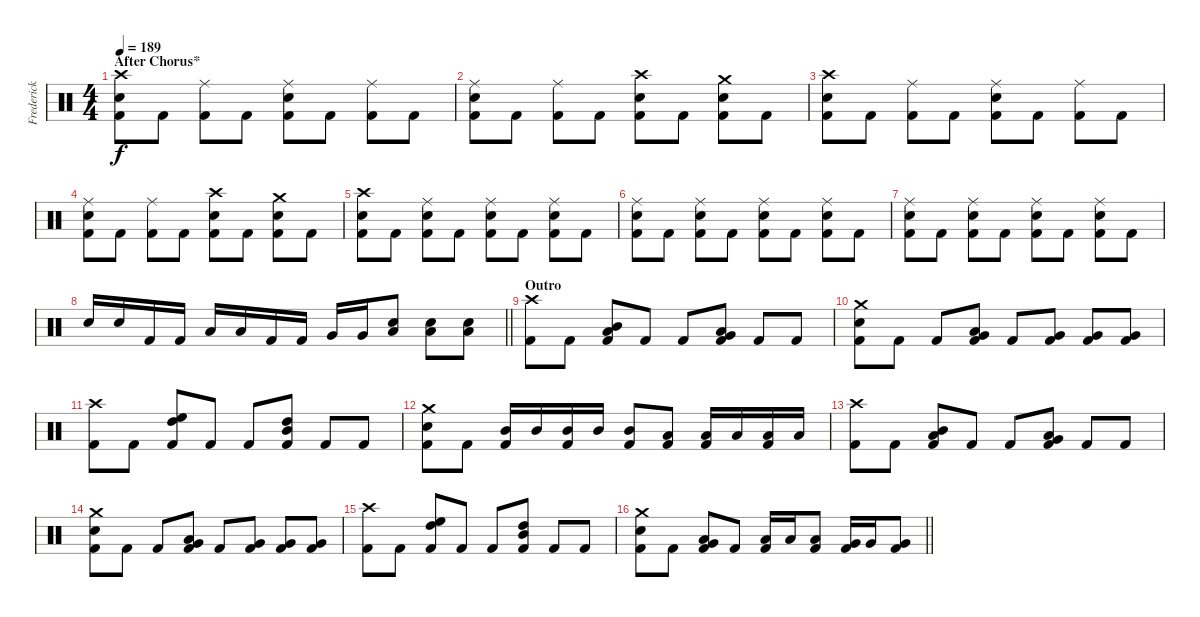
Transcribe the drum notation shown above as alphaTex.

\track ("Frederick Ehmke" "Frederick ") {instrument percussion}
\staff {score}
\articulation defaults
\ts (4 4)
\section ("" "After Chorus*")
\tempo 189
\clef neutral
\ks c
("Electric Snare (hit)" "Kick (hit) 2" "Crash high (hit)").8{dy f} "Kick (hit) 2".8 ("Kick (hit) 2" "Ride (middle)").8 "Kick (hit) 2".8 ("Electric Snare (hit)" "Kick (hit) 2" "Ride (middle)").8 "Kick (hit) 2".8 ("Kick (hit) 2" "Ride (middle)").8 "Kick (hit) 2".8 |
("Electric Snare (hit)" "Kick (hit) 2" "Ride (middle)").8 "Kick (hit) 2".8 ("Kick (hit) 2" "Ride (middle)").8 "Kick (hit) 2".8 ("Electric Snare (hit)" "Kick (hit) 2" "Crash high (hit)").8 "Kick (hit) 2".8 ("Electric Snare (hit)" "Kick (hit) 2" "Crash medium (hit)").8 "Kick (hit) 2".8 |
("Electric Snare (hit)" "Kick (hit) 2" "Crash high (hit)").8 "Kick (hit) 2".8 ("Kick (hit) 2" "Ride (middle)").8 "Kick (hit) 2".8 ("Electric Snare (hit)" "Kick (hit) 2" "Ride (middle)").8 "Kick (hit) 2".8 ("Kick (hit) 2" "Ride (middle)").8 "Kick (hit) 2".8 |
("Electric Snare (hit)" "Kick (hit) 2" "Ride (middle)").8 "Kick (hit) 2".8 ("Kick (hit) 2" "Ride (middle)").8 "Kick (hit) 2".8 ("Electric Snare (hit)" "Kick (hit) 2" "Crash high (hit)").8 "Kick (hit) 2".8 ("Electric Snare (hit)" "Kick (hit) 2" "Crash medium (hit)").8 "Kick (hit) 2".8 |
("Electric Snare (hit)" "Kick (hit) 2" "Crash high (hit)").8 "Kick (hit) 2".8 ("Electric Snare (hit)" "Kick (hit) 2" "Ride (middle)").8 "Kick (hit) 2".8 ("Electric Snare (hit)" "Kick (hit) 2" "Ride (middle)").8 "Kick (hit) 2".8 ("Electric Snare (hit)" "Kick (hit) 2" "Ride (middle)").8 "Kick (hit) 2".8 |
("Electric Snare (hit)" "Kick (hit) 2" "Ride (middle)").8 "Kick (hit) 2".8 ("Electric Snare (hit)" "Kick (hit) 2" "Ride (middle)").8 "Kick (hit) 2".8 ("Electric Snare (hit)" "Kick (hit) 2" "Ride (middle)").8 "Kick (hit) 2".8 ("Electric Snare (hit)" "Kick (hit) 2" "Ride (middle)").8 "Kick (hit) 2".8 |
("Electric Snare (hit)" "Kick (hit) 2" "Ride (middle)").8 "Kick (hit) 2".8 ("Electric Snare (hit)" "Kick (hit) 2" "Ride (middle)").8 "Kick (hit) 2".8 ("Electric Snare (hit)" "Kick (hit) 2" "Ride (middle)").8 "Kick (hit) 2".8 ("Electric Snare (hit)" "Kick (hit) 2" "Ride (middle)").8 "Kick (hit) 2".8 |
\barLineRight lightlight "Electric Snare (hit)".16 "Electric Snare (hit)".16 "Kick (hit) 2".16 "Kick (hit) 2".16 "Low Tom (hit)".16 "Low Tom (hit)".16 "Kick (hit) 2".16 "Kick (hit) 2".16 "Very Low Tom (hit)".16 "Very Low Tom (hit)".16
("Electric Snare (hit)" "Low Floor Tom (hit)").8 ("Electric Snare (hit)" "Low Floor Tom (hit)").8 ("Electric Snare (hit)" "Low Floor Tom (hit)").8 |
\section ("" "Outro")
("Kick (hit) 2" "Crash high (hit)").8 "Kick (hit) 2".8 ("Kick (hit) 2" "Low Tom (hit)" "Mid Tom (hit)").8 "Kick (hit) 2".8 "Kick (hit) 2".8 ("Kick (hit) 2" "Low Tom (hit)" "Very Low Tom (hit)").8 "Kick (hit) 2".8 "Kick (hit) 2".8 |
("Electric Snare (hit)" "Kick (hit) 2" "Crash medium (hit)").8 "Kick (hit) 2".8 "Kick (hit) 2".8 ("Kick (hit) 2" "Low Tom (hit)" "Very Low Tom (hit)").8 "Kick (hit) 2".8 ("Kick (hit) 2" "Very Low Tom (hit)").8 ("Kick (hit) 2" "Very Low Tom (hit)").8 ("Kick (hit) 2" "Very Low Tom (hit)").8 |
("Kick (hit) 2" "Crash high (hit)").8 "Kick (hit) 2".8 ("Kick (hit) 2" "High Floor Tom (hit)" "High Tom (hit)").8 "Kick (hit) 2".8 "Kick (hit) 2".8 ("Kick (hit) 2" "High Tom (hit)" "Mid Tom (hit)").8 "Kick (hit) 2".8 "Kick (hit) 2".8 |
("Electric Snare (hit)" "Kick (hit) 2" "Crash medium (hit)").8 "Kick (hit) 2".8 ("Kick (hit) 2" "Mid Tom (hit)").16 "Mid Tom (hit)".16 ("Kick (hit) 2" "Mid Tom (hit)").16 "Mid Tom (hit)".16 ("Kick (hit) 2" "Mid Tom (hit)").8 ("Kick (hit) 2" "Low Tom (hit)").8 ("Kick (hit) 2" "Low Tom (hit)").16 "Low Tom (hit)".16 ("Kick (hit) 2" "Low Tom (hit)").16 "Low Tom (hit)".16 |
("Kick (hit) 2" "Crash high (hit)").8 "Kick (hit) 2".8 ("Kick (hit) 2" "Low Tom (hit)" "Mid Tom (hit)").8 "Kick (hit) 2".8 "Kick (hit) 2".8 ("Kick (hit) 2" "Low Tom (hit)" "Very Low Tom (hit)").8 "Kick (hit) 2".8 "Kick (hit) 2".8 |
("Electric Snare (hit)" "Kick (hit) 2" "Crash medium (hit)").8 "Kick (hit) 2".8 "Kick (hit) 2".8 ("Kick (hit) 2" "Low Tom (hit)" "Very Low Tom (hit)").8 "Kick (hit) 2".8 ("Kick (hit) 2" "Very Low Tom (hit)").8 ("Kick (hit) 2" "Very Low Tom (hit)").8 ("Kick (hit) 2" "Very Low Tom (hit)").8 |
("Kick (hit) 2" "Crash high (hit)").8 "Kick (hit) 2".8 ("Kick (hit) 2" "High Floor Tom (hit)" "High Tom (hit)").8 "Kick (hit) 2".8 "Kick (hit) 2".8 ("Kick (hit) 2" "High Tom (hit)" "Mid Tom (hit)").8 "Kick (hit) 2".8 "Kick (hit) 2".8 |
\barLineRight lightlight
("Electric Snare (hit)" "Kick (hit) 2" "Crash medium (hit)").8 "Kick (hit) 2".8 ("Kick (hit) 2" "Low Tom (hit)" "Very Low Tom (hit)").8 "Kick (hit) 2".8 ("Kick (hit) 2" "Low Tom (hit)").16 "Low Tom (hit)".16 ("Kick (hit) 2" "Low Tom (hit)").8 ("Kick (hit) 2" "Very Low Tom (hit)").16 "Very Low Tom (hit)".16 ("Kick (hit) 2" "Very Low Tom (hit)").8
